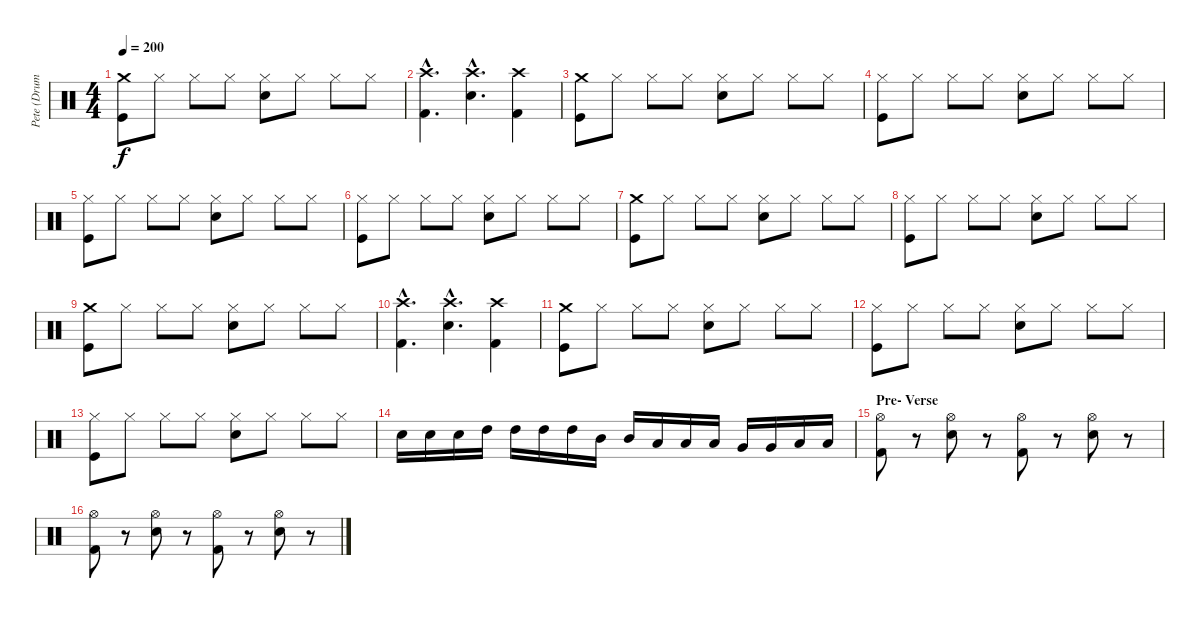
\track ("Pete (Drums)" "Pete (Drum") {instrument percussion}
\staff {score}
\articulation defaults
\ts (4 4)
\tempo 200
\clef neutral
\ks c
("Crash medium (hit)" "Kick (hit)").8{dy f} "Hi-Hat (closed)".8 "Hi-Hat (closed)".8 "Hi-Hat (closed)".8 ("Hi-Hat (closed)" "Snare (hit) 2").8 "Hi-Hat (closed)".8 "Hi-Hat (closed)".8 "Hi-Hat (closed)".8 |
("Crash high (hit)"{hac} "Kick (hit) 2"{hac}).4{d} ("Crash high (hit)"{hac} "Snare (hit) 2"{hac}).4{d} ("Crash high (hit)" "Kick (hit) 2").4 |
("Crash medium (hit)" "Kick (hit)").8 "Hi-Hat (closed)".8 "Hi-Hat (closed)".8 "Hi-Hat (closed)".8 ("Hi-Hat (closed)" "Snare (hit) 2").8 "Hi-Hat (closed)".8 "Hi-Hat (closed)".8 "Hi-Hat (closed)".8 |
("Hi-Hat (closed)" "Kick (hit)").8 "Hi-Hat (closed)".8 "Hi-Hat (closed)".8 "Hi-Hat (closed)".8 ("Hi-Hat (closed)" "Snare (hit) 2").8 "Hi-Hat (closed)".8 "Hi-Hat (closed)".8 "Hi-Hat (closed)".8 |
("Hi-Hat (closed)" "Kick (hit)").8 "Hi-Hat (closed)".8 "Hi-Hat (closed)".8 "Hi-Hat (closed)".8 ("Hi-Hat (closed)" "Snare (hit) 2").8 "Hi-Hat (closed)".8 "Hi-Hat (closed)".8 "Hi-Hat (closed)".8 |
("Hi-Hat (closed)" "Kick (hit)").8 "Hi-Hat (closed)".8 "Hi-Hat (closed)".8 "Hi-Hat (closed)".8 ("Hi-Hat (closed)" "Snare (hit) 2").8 "Hi-Hat (closed)".8 "Hi-Hat (closed)".8 "Hi-Hat (closed)".8 |
("Crash medium (hit)" "Kick (hit)").8 "Hi-Hat (closed)".8 "Hi-Hat (closed)".8 "Hi-Hat (closed)".8 ("Hi-Hat (closed)" "Snare (hit) 2").8 "Hi-Hat (closed)".8 "Hi-Hat (closed)".8 "Hi-Hat (closed)".8 |
("Hi-Hat (closed)" "Kick (hit)").8 "Hi-Hat (closed)".8 "Hi-Hat (closed)".8 "Hi-Hat (closed)".8 ("Hi-Hat (closed)" "Snare (hit) 2").8 "Hi-Hat (closed)".8 "Hi-Hat (closed)".8 "Hi-Hat (closed)".8 |
("Crash medium (hit)" "Kick (hit)").8 "Hi-Hat (closed)".8 "Hi-Hat (closed)".8 "Hi-Hat (closed)".8 ("Hi-Hat (closed)" "Snare (hit) 2").8 "Hi-Hat (closed)".8 "Hi-Hat (closed)".8 "Hi-Hat (closed)".8 |
("Crash high (hit)"{hac} "Kick (hit) 2"{hac}).4{d} ("Crash high (hit)"{hac} "Snare (hit) 2"{hac}).4{d} ("Crash high (hit)" "Kick (hit) 2").4 |
("Crash medium (hit)" "Kick (hit)").8 "Hi-Hat (closed)".8 "Hi-Hat (closed)".8 "Hi-Hat (closed)".8 ("Hi-Hat (closed)" "Snare (hit) 2").8 "Hi-Hat (closed)".8 "Hi-Hat (closed)".8 "Hi-Hat (closed)".8 |
("Hi-Hat (closed)" "Kick (hit)").8 "Hi-Hat (closed)".8 "Hi-Hat (closed)".8 "Hi-Hat (closed)".8 ("Hi-Hat (closed)" "Snare (hit) 2").8 "Hi-Hat (closed)".8 "Hi-Hat (closed)".8 "Hi-Hat (closed)".8 |
("Hi-Hat (closed)" "Kick (hit)").8 "Hi-Hat (closed)".8 "Hi-Hat (closed)".8 "Hi-Hat (closed)".8 ("Hi-Hat (closed)" "Snare (hit) 2").8 "Hi-Hat (closed)".8 "Hi-Hat (closed)".8 "Hi-Hat (closed)".8 |
"Snare (hit) 2".16 "Snare (hit) 2".16 "Snare (hit) 2".16 "High Tom (hit)".16 "High Tom (hit)".16 "High Tom (hit)".16 "High Tom (hit)".16 "Mid Tom (hit)".16 "Mid Tom (hit)".16 "Low Tom (hit)".16 "Low Tom (hit)".16 "Low Tom (hit)".16 "Very Low Tom (hit)".16 "Very Low Tom (hit)".16 "Low Floor Tom (hit)".16 "Low Floor Tom (hit)".16 |
\section ("" "Pre- Verse")
("Hi-Hat (open)" "Kick (hit) 2").8 r.8 ("Hi-Hat (open)" "Snare (hit) 2").8 r.8 ("Hi-Hat (open)" "Kick (hit) 2").8 r.8 ("Hi-Hat (open)" "Snare (hit) 2").8 r.8 |
("Hi-Hat (open)" "Kick (hit) 2").8 r.8 ("Hi-Hat (open)" "Snare (hit) 2").8 r.8 ("Hi-Hat (open)" "Kick (hit) 2").8 r.8 ("Hi-Hat (open)" "Snare (hit) 2").8 r.8
